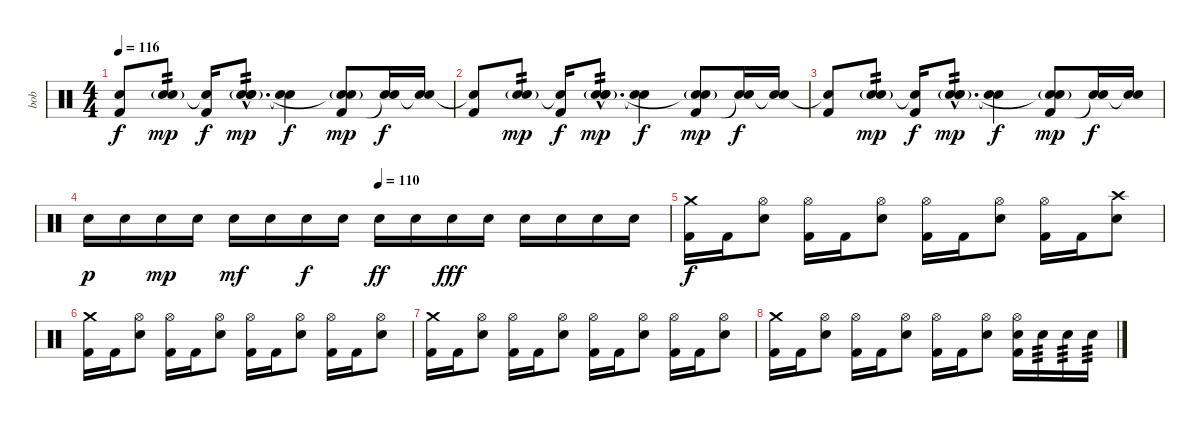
\track ("bob" "bob") {instrument percussion}
\staff {score}
\articulation defaults
\ts (4 4)
\tempo 116
\clef neutral
\ks c
("Kick (hit) 2" "Snare (hit)"{t}).8{dy f} ("Electric Snare (hit)" "Electric Snare (hit)"{g}).8{tp 2 dy mp} ("Kick (hit) 2" "Snare (hit)"{t}).16{dy f} ("Electric Snare (hit)"{hac} "Snare (hit) 2"{g hac} "Electric Snare (hit)"{g hac}).8{d tp 2 dy mp} ("Electric Snare (hit)" "Snare (hit)"{t}).4{dy f} ("Snare (hit) 2"{g} "Kick (hit) 2" "Snare (hit) 2"{t}).8{dy mp} ("Electric Snare (hit)" "Snare (hit)"{t}).16{dy f} ("Electric Snare (hit)" "Electric Snare (hit)"{t}).16 |
("Kick (hit) 2" "Snare (hit)"{t}).8 ("Electric Snare (hit)" "Electric Snare (hit)"{g}).8{tp 2 dy mp} ("Kick (hit) 2" "Snare (hit)"{t}).16{dy f} ("Electric Snare (hit)"{hac} "Snare (hit) 2"{g hac} "Electric Snare (hit)"{g hac}).8{d tp 2 dy mp} ("Electric Snare (hit)" "Snare (hit)"{t}).4{dy f} ("Snare (hit) 2"{g} "Kick (hit) 2" "Snare (hit) 2"{t}).8{dy mp} ("Electric Snare (hit)" "Snare (hit)"{t}).16{dy f} ("Electric Snare (hit)" "Electric Snare (hit)"{t}).16 |
("Kick (hit) 2" "Snare (hit)"{t}).8 ("Electric Snare (hit)" "Electric Snare (hit)"{g}).8{tp 2 dy mp} ("Kick (hit) 2" "Snare (hit)"{t}).16{dy f} ("Electric Snare (hit)"{hac} "Snare (hit) 2"{g hac} "Electric Snare (hit)"{g hac}).8{d tp 2 dy mp} ("Electric Snare (hit)" "Snare (hit)"{t}).4{dy f} ("Snare (hit) 2"{g} "Kick (hit) 2" "Snare (hit) 2"{t}).8{dy mp} ("Electric Snare (hit)" "Snare (hit)"{t}).16{dy f} ("Electric Snare (hit)" "Electric Snare (hit)"{t}).16 |
\tempo (110 0.5)
"Electric Snare (hit)".16{dy p} "Electric Snare (hit)".16 "Electric Snare (hit)".16{dy mp} "Electric Snare (hit)".16 "Electric Snare (hit)".16{dy mf} "Electric Snare (hit)".16 "Electric Snare (hit)".16{dy f} "Electric Snare (hit)".16 "Electric Snare (hit)".16{dy ff} "Electric Snare (hit)".16 "Electric Snare (hit)".16{dy fff} "Electric Snare (hit)".16 "Electric Snare (hit)".16 "Electric Snare (hit)".16 "Electric Snare (hit)".16 "Electric Snare (hit)".16 |
("Crash medium (hit)" "Kick (hit) 2").16{dy f} "Kick (hit) 2".16 ("Hi-Hat (open)" "Electric Snare (hit)").8 ("Hi-Hat (open)" "Kick (hit) 2").16 "Kick (hit) 2".16 ("Hi-Hat (open)" "Electric Snare (hit)").8 ("Hi-Hat (open)" "Kick (hit) 2").16 "Kick (hit) 2".16 ("Hi-Hat (open)" "Electric Snare (hit)").8 ("Hi-Hat (open)" "Kick (hit) 2").16 "Kick (hit) 2".16 ("Crash high (hit)" "Electric Snare (hit)").8 |
("Crash medium (hit)" "Kick (hit) 2").16 "Kick (hit) 2".16 ("Hi-Hat (open)" "Electric Snare (hit)").8 ("Hi-Hat (open)" "Kick (hit) 2").16 "Kick (hit) 2".16 ("Hi-Hat (open)" "Electric Snare (hit)").8 ("Hi-Hat (open)" "Kick (hit) 2").16 "Kick (hit) 2".16 ("Hi-Hat (open)" "Electric Snare (hit)").8 ("Hi-Hat (open)" "Kick (hit) 2").16 "Kick (hit) 2".16 ("Hi-Hat (open)" "Electric Snare (hit)").8 |
("Crash medium (hit)" "Kick (hit) 2").16 "Kick (hit) 2".16 ("Hi-Hat (open)" "Electric Snare (hit)").8 ("Hi-Hat (open)" "Kick (hit) 2").16 "Kick (hit) 2".16 ("Hi-Hat (open)" "Electric Snare (hit)").8 ("Hi-Hat (open)" "Kick (hit) 2").16 "Kick (hit) 2".16 ("Hi-Hat (open)" "Electric Snare (hit)").8 ("Hi-Hat (open)" "Kick (hit) 2").16 "Kick (hit) 2".16 ("Hi-Hat (open)" "Electric Snare (hit)").8 |
("Crash medium (hit)" "Kick (hit) 2").16 "Kick (hit) 2".16 ("Hi-Hat (open)" "Electric Snare (hit)").8 ("Hi-Hat (open)" "Kick (hit) 2").16 "Kick (hit) 2".16 ("Hi-Hat (open)" "Electric Snare (hit)").8 ("Hi-Hat (open)" "Kick (hit) 2").16 "Kick (hit) 2".16 ("Hi-Hat (open)" "Electric Snare (hit)").8 ("Hi-Hat (open)" "Electric Snare (hit)" "Kick (hit) 2").16 "Electric Snare (hit)".16{tp 3} "Electric Snare (hit)".16{tp 3} "Electric Snare (hit)".16{tp 3}
